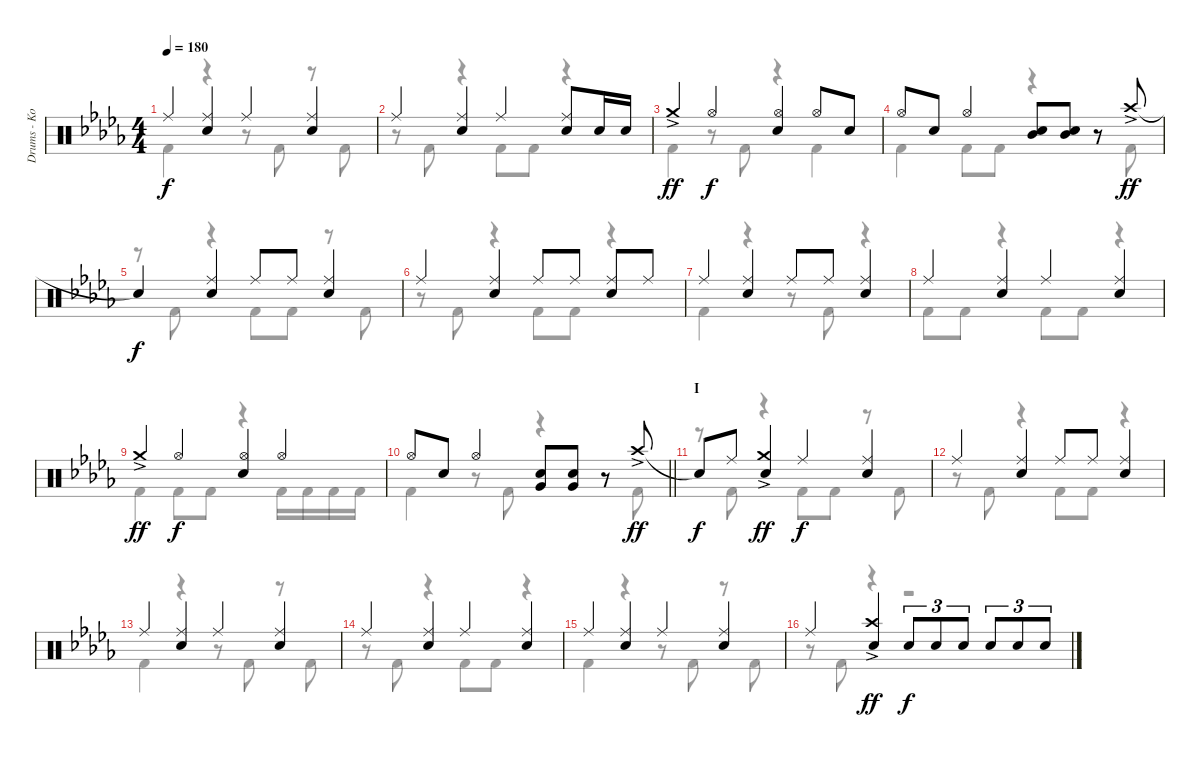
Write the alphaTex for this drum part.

\track ("Drums - Koji Hasegawa" "Drums - Ko") {instrument percussion}
\staff {score}
\articulation defaults
\voice
\ts (4 4)
\tempo 180
\clef neutral
\ks db "Ride (middle)".4{dy f}
("Ride (middle)" "Snare (hit) 2").4 "Ride (middle)".4 ("Ride (middle)" "Snare (hit) 2").4 |
"Ride (middle)".4 ("Ride (middle)" "Snare (hit) 2").4 "Ride (middle)".4 ("Ride (middle)" "Snare (hit) 2").8 "Snare (hit) 2".16 "Snare (hit) 2".16 |
"Crash medium (hit)"{ac}.4{dy ff} "Hi-Hat (open)".4{dy f} ("Hi-Hat (open)" "Snare (hit) 2").4 "Hi-Hat (open)".8 "Snare (hit) 2".8 |
"Hi-Hat (open)".8 "Snare (hit) 2".8 "Hi-Hat (open)".4 ("Mid Tom (hit)" "Snare (hit) 2").8 ("Mid Tom (hit)" "Snare (hit) 2").8 r.8 "Crash high (hit)"{ac}.8{dy ff} |
"Snare (hit)"{t}.4{dy f} ("Ride (middle)" "Snare (hit) 2").4 "Ride (middle)".8 "Ride (middle)".8 ("Ride (middle)" "Snare (hit) 2").4 |
"Ride (middle)".4 ("Ride (middle)" "Snare (hit) 2").4 "Ride (middle)".8 "Ride (middle)".8 ("Ride (middle)" "Snare (hit) 2").8 "Ride (middle)".8 |
"Ride (middle)".4 ("Ride (middle)" "Snare (hit) 2").4 "Ride (middle)".8 "Ride (middle)".8 ("Ride (middle)" "Snare (hit) 2").4 |
"Ride (middle)".4 ("Ride (middle)" "Snare (hit) 2").4 "Ride (middle)".4 ("Ride (middle)" "Snare (hit) 2").4 |
"Crash medium (hit)"{ac}.4{dy ff} "Hi-Hat (open)".4{dy f} ("Hi-Hat (open)" "Snare (hit) 2").4 "Hi-Hat (open)".4 |
\barLineRight lightlight "Hi-Hat (open)".8 "Snare (hit) 2".8 "Hi-Hat (open)".4
("Very Low Tom (hit)" "Snare (hit) 2").8 ("Very Low Tom (hit)" "Snare (hit) 2").8 r.8 "Crash high (hit)"{ac}.8{dy ff} |
\section ("" "I")
"Snare (hit)"{t}.8{dy f} "Ride (middle)".8 ("Crash medium (hit)"{ac} "Snare (hit) 2").4{dy ff} "Ride (middle)".4{dy f} ("Ride (middle)" "Snare (hit) 2").4 |
"Ride (middle)".4 ("Ride (middle)" "Snare (hit) 2").4 "Ride (middle)".8 "Ride (middle)".8 ("Ride (middle)" "Snare (hit) 2").4 |
"Ride (middle)".4 ("Ride (middle)" "Snare (hit) 2").4 "Ride (middle)".4 ("Ride (middle)" "Snare (hit) 2").4 |
"Ride (middle)".4 ("Ride (middle)" "Snare (hit) 2").4 "Ride (middle)".4 ("Ride (middle)" "Snare (hit) 2").4 |
"Ride (middle)".4 ("Ride (middle)" "Snare (hit) 2").4 "Ride (middle)".4 ("Ride (middle)" "Snare (hit) 2").4 |
"Ride (middle)".4 ("Crash high (hit)"{ac} "Snare (hit) 2").4{dy ff} "Snare (hit) 2".8{tu (3 2) dy f} "Snare (hit) 2".8{tu (3 2)} "Snare (hit) 2".8{tu (3 2)} "Snare (hit) 2".8{tu (3 2)} "Snare (hit) 2".8{tu (3 2)} "Snare (hit) 2".8{tu (3 2)}
\voice
\clef neutral
\ottava regular
\simile none
\ks db "Kick (hit) 2".4{dy f}
r.4 r.8 "Kick (hit) 2".8 r.8 "Kick (hit) 2".8 |
r.8 "Kick (hit) 2".8 r.4 "Kick (hit) 2".8 "Kick (hit) 2".8 r.4 |
"Kick (hit) 2".4 r.8 "Kick (hit) 2".8 r.4 "Kick (hit) 2".4 |
"Kick (hit) 2".4 "Kick (hit) 2".8 "Kick (hit) 2".8 r.4 r.8 "Kick (hit) 2".8 |
r.8 "Kick (hit) 2".8 r.4 "Kick (hit) 2".8 "Kick (hit) 2".8 r.8 "Kick (hit) 2".8 |
r.8 "Kick (hit) 2".8 r.4 "Kick (hit) 2".8 "Kick (hit) 2".8 r.4 |
"Kick (hit) 2".4 r.4 r.8 "Kick (hit) 2".8 r.4 |
"Kick (hit) 2".8 "Kick (hit) 2".8 r.4 "Kick (hit) 2".8 "Kick (hit) 2".8 r.4 |
"Kick (hit) 2".4 "Kick (hit) 2".8 "Kick (hit) 2".8 r.4 "Kick (hit) 2".16 "Kick (hit) 2".16 "Kick (hit) 2".16 "Kick (hit) 2".16 |
\barLineRight lightlight "Kick (hit) 2".4
r.8 "Kick (hit) 2".8 r.4 r.8 "Kick (hit) 2".8 |
r.8 "Kick (hit) 2".8 r.4 "Kick (hit) 2".8 "Kick (hit) 2".8 r.8 "Kick (hit) 2".8 |
r.8 "Kick (hit) 2".8 r.4 "Kick (hit) 2".8 "Kick (hit) 2".8 r.4 |
"Kick (hit) 2".4 r.4 r.8 "Kick (hit) 2".8 r.8 "Kick (hit) 2".8 |
r.8 "Kick (hit) 2".8 r.4 "Kick (hit) 2".8 "Kick (hit) 2".8 r.4 |
"Kick (hit) 2".4 r.4 r.8 "Kick (hit) 2".8 r.8 "Kick (hit) 2".8 |
r.8 "Kick (hit) 2".8 r.4 r.2
